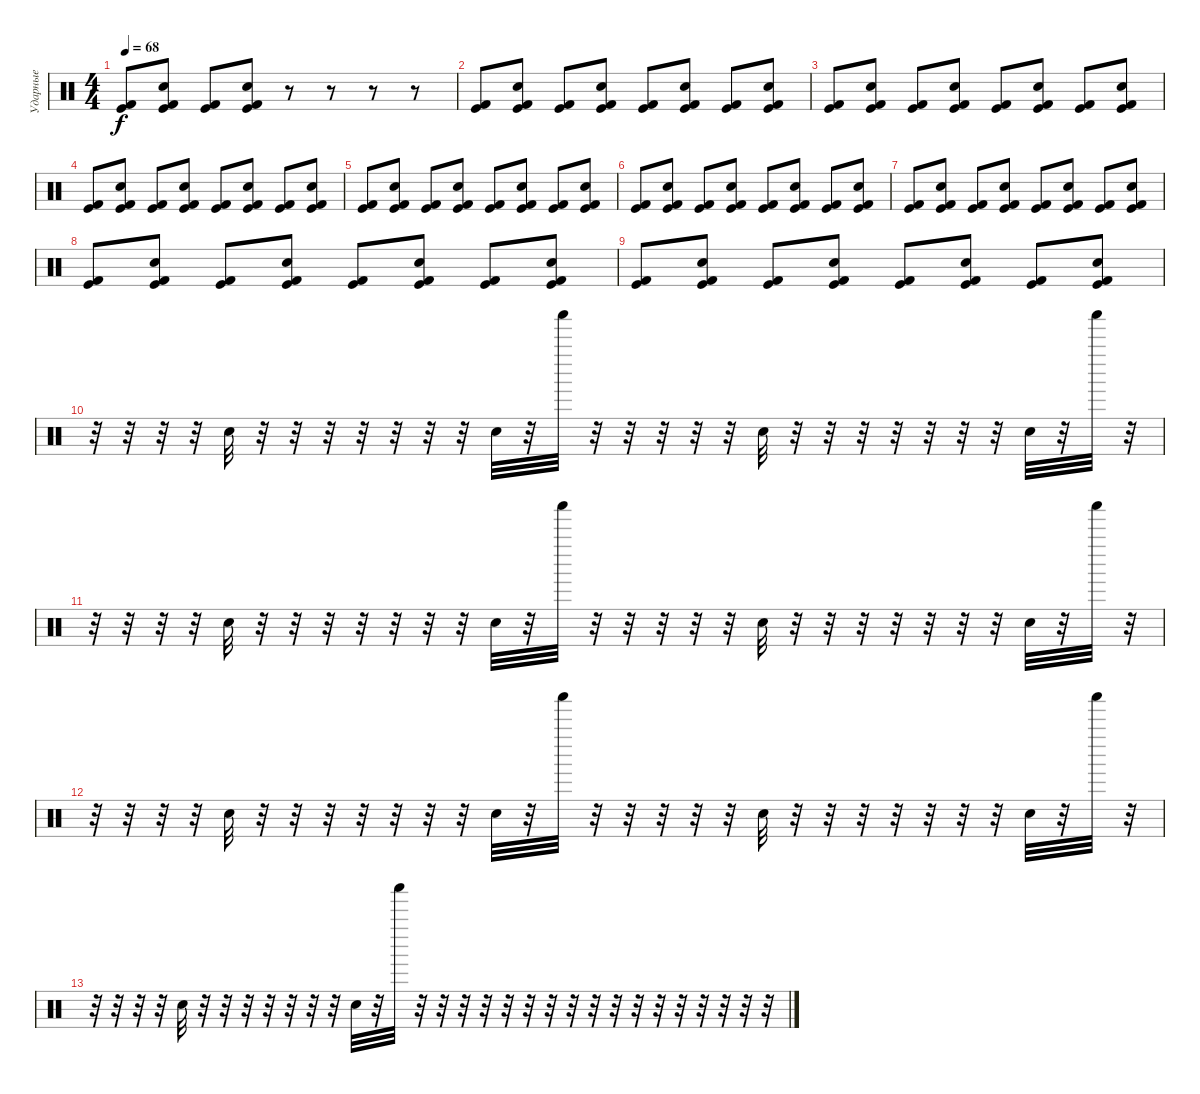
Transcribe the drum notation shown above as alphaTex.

\track ("Ударные" "Ударные") {instrument percussion}
\staff {score}
\articulation defaults
\ts (4 4)
\tempo 68
\clef neutral
\ks c
("Kick (hit)" "Kick (hit) 2").8{dy f} ("Kick (hit)" "Kick (hit) 2" "Hand Clap (hit)").8 ("Kick (hit)" "Kick (hit) 2").8 ("Kick (hit)" "Kick (hit) 2" "Hand Clap (hit)").8 r.8 r.8 r.8 r.8 |
("Kick (hit)" "Kick (hit) 2").8 ("Kick (hit)" "Kick (hit) 2" "Hand Clap (hit)").8 ("Kick (hit)" "Kick (hit) 2").8 ("Kick (hit)" "Kick (hit) 2" "Hand Clap (hit)").8 ("Kick (hit)" "Kick (hit) 2").8 ("Kick (hit)" "Kick (hit) 2" "Hand Clap (hit)").8 ("Kick (hit)" "Kick (hit) 2").8 ("Kick (hit)" "Kick (hit) 2" "Hand Clap (hit)").8 |
("Kick (hit)" "Kick (hit) 2").8 ("Kick (hit)" "Kick (hit) 2" "Hand Clap (hit)").8 ("Kick (hit)" "Kick (hit) 2").8 ("Kick (hit)" "Kick (hit) 2" "Hand Clap (hit)").8 ("Kick (hit)" "Kick (hit) 2").8 ("Kick (hit)" "Kick (hit) 2" "Hand Clap (hit)").8 ("Kick (hit)" "Kick (hit) 2").8 ("Kick (hit)" "Kick (hit) 2" "Hand Clap (hit)").8 |
("Kick (hit)" "Kick (hit) 2").8 ("Kick (hit)" "Kick (hit) 2" "Hand Clap (hit)").8 ("Kick (hit)" "Kick (hit) 2").8 ("Kick (hit)" "Kick (hit) 2" "Hand Clap (hit)").8 ("Kick (hit)" "Kick (hit) 2").8 ("Kick (hit)" "Kick (hit) 2" "Hand Clap (hit)").8 ("Kick (hit)" "Kick (hit) 2").8 ("Kick (hit)" "Kick (hit) 2" "Hand Clap (hit)").8 |
("Kick (hit)" "Kick (hit) 2").8 ("Kick (hit)" "Kick (hit) 2" "Hand Clap (hit)").8 ("Kick (hit)" "Kick (hit) 2").8 ("Kick (hit)" "Kick (hit) 2" "Hand Clap (hit)").8 ("Kick (hit)" "Kick (hit) 2").8 ("Kick (hit)" "Kick (hit) 2" "Hand Clap (hit)").8 ("Kick (hit)" "Kick (hit) 2").8 ("Kick (hit)" "Kick (hit) 2" "Hand Clap (hit)").8 |
("Kick (hit)" "Kick (hit) 2").8 ("Kick (hit)" "Kick (hit) 2" "Hand Clap (hit)").8 ("Kick (hit)" "Kick (hit) 2").8 ("Kick (hit)" "Kick (hit) 2" "Hand Clap (hit)").8 ("Kick (hit)" "Kick (hit) 2").8 ("Kick (hit)" "Kick (hit) 2" "Hand Clap (hit)").8 ("Kick (hit)" "Kick (hit) 2").8 ("Kick (hit)" "Kick (hit) 2" "Hand Clap (hit)").8 |
("Kick (hit)" "Kick (hit) 2").8 ("Kick (hit)" "Kick (hit) 2" "Hand Clap (hit)").8 ("Kick (hit)" "Kick (hit) 2").8 ("Kick (hit)" "Kick (hit) 2" "Hand Clap (hit)").8 ("Kick (hit)" "Kick (hit) 2").8 ("Kick (hit)" "Kick (hit) 2" "Hand Clap (hit)").8 ("Kick (hit)" "Kick (hit) 2").8 ("Kick (hit)" "Kick (hit) 2" "Hand Clap (hit)").8 |
("Kick (hit)" "Kick (hit) 2").8 ("Kick (hit)" "Kick (hit) 2" "Hand Clap (hit)").8 ("Kick (hit)" "Kick (hit) 2").8 ("Kick (hit)" "Kick (hit) 2" "Hand Clap (hit)").8 ("Kick (hit)" "Kick (hit) 2").8 ("Kick (hit)" "Kick (hit) 2" "Hand Clap (hit)").8 ("Kick (hit)" "Kick (hit) 2").8 ("Kick (hit)" "Kick (hit) 2" "Hand Clap (hit)").8 |
("Kick (hit)" "Kick (hit) 2").8 ("Kick (hit)" "Kick (hit) 2" "Hand Clap (hit)").8 ("Kick (hit)" "Kick (hit) 2").8 ("Kick (hit)" "Kick (hit) 2" "Hand Clap (hit)").8 ("Kick (hit)" "Kick (hit) 2").8 ("Kick (hit)" "Kick (hit) 2" "Hand Clap (hit)").8 ("Kick (hit)" "Kick (hit) 2").8 ("Kick (hit)" "Kick (hit) 2" "Hand Clap (hit)").8 |
r.32 r.32 r.32 r.32 "Hand Clap (hit)".32 r.32 r.32 r.32 r.32 r.32 r.32 r.32 "Hand Clap (hit)".32 r.32 "Shaker (hit)".32 r.32 r.32 r.32 r.32 r.32 "Hand Clap (hit)".32 r.32 r.32 r.32 r.32 r.32 r.32 r.32 "Hand Clap (hit)".32 r.32 "Shaker (hit)".32 r.32 |
r.32 r.32 r.32 r.32 "Hand Clap (hit)".32 r.32 r.32 r.32 r.32 r.32 r.32 r.32 "Hand Clap (hit)".32 r.32 "Shaker (hit)".32 r.32 r.32 r.32 r.32 r.32 "Hand Clap (hit)".32 r.32 r.32 r.32 r.32 r.32 r.32 r.32 "Hand Clap (hit)".32 r.32 "Shaker (hit)".32 r.32 |
r.32 r.32 r.32 r.32 "Hand Clap (hit)".32 r.32 r.32 r.32 r.32 r.32 r.32 r.32 "Hand Clap (hit)".32 r.32 "Shaker (hit)".32 r.32 r.32 r.32 r.32 r.32 "Hand Clap (hit)".32 r.32 r.32 r.32 r.32 r.32 r.32 r.32 "Hand Clap (hit)".32 r.32 "Shaker (hit)".32 r.32 |
r.32 r.32 r.32 r.32 "Hand Clap (hit)".32 r.32 r.32 r.32 r.32 r.32 r.32 r.32 "Hand Clap (hit)".32 r.32 "Shaker (hit)".32 r.32 r.32 r.32 r.32 r.32 r.32 r.32 r.32 r.32 r.32 r.32 r.32 r.32 r.32 r.32 r.32 r.32
